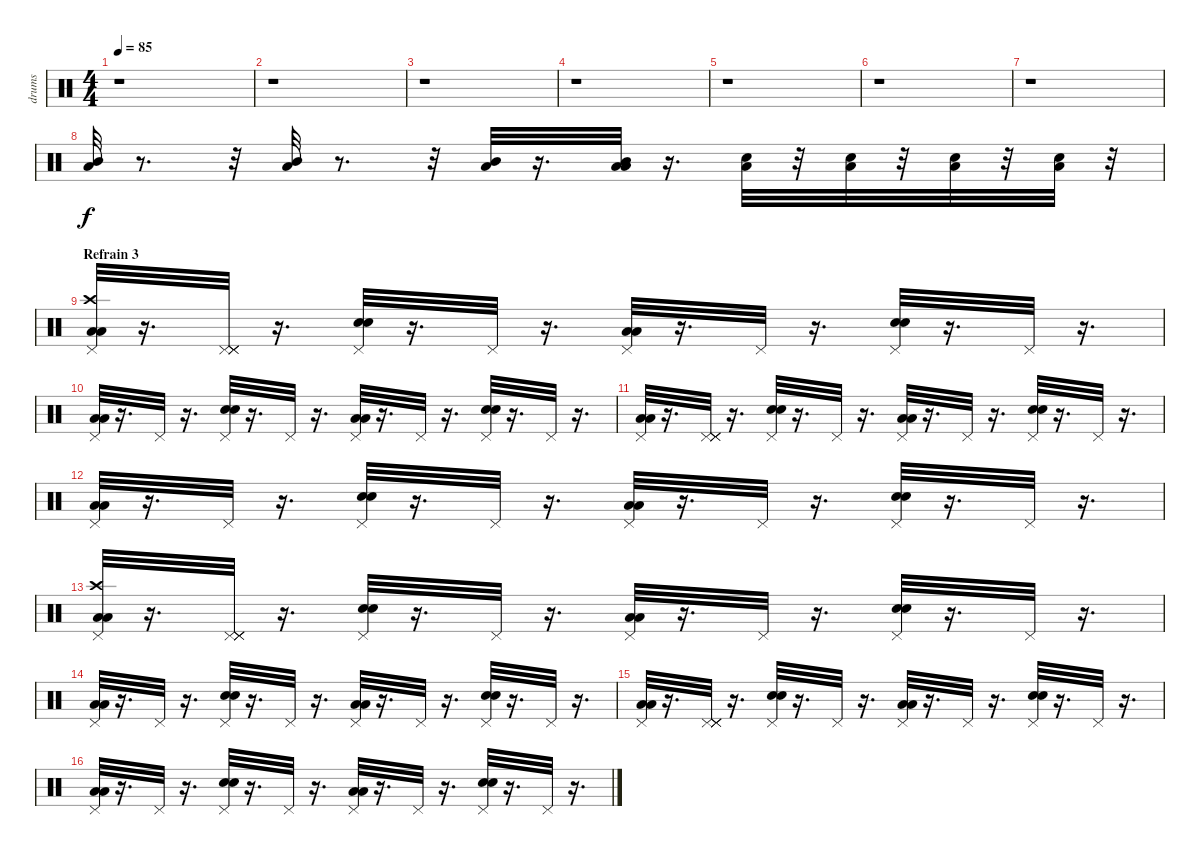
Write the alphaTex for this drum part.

\track ("drums" "drums") {instrument percussion}
\staff {score}
\articulation defaults
\ts (4 4)
\tempo 85
\clef neutral
\ks c
r.1{dy f} |
r.1 |
r.1 |
r.1 |
r.1 |
r.1 |
r.1 |
("Low Floor Tom (hit)" "Mid Tom (hit)").32 r.8{d} r.32 ("Low Floor Tom (hit)" "Mid Tom (hit)").32 r.8{d} r.32 ("Low Floor Tom (hit)" "Mid Tom (hit)").32 r.16{d} ("Low Floor Tom (hit)" "Low Tom (hit)" "Mid Tom (hit)").32 r.16{d} ("Low Floor Tom (hit)" "Snare (hit) 2").32 r.32 ("Low Floor Tom (hit)" "Snare (hit) 2").32 r.32 ("Low Floor Tom (hit)" "Snare (hit) 2").32 r.32 ("Low Floor Tom (hit)" "Snare (hit) 2").32 r.32 |
\section ("" "Refrain 3")
("Crash high (hit)" "Pedal Hi-Hat (hit)" "Low Floor Tom (hit)" "Low Tom (hit)").32 r.16{d} ("Pedal Hi-Hat (hit)" "Pedal Hi-Hat (hit)" "Pedal Hi-Hat (hit)" "Pedal Hi-Hat (hit)").32 r.16{d} ("Pedal Hi-Hat (hit)" "Electric Snare (hit)" "Snare (hit) 2").32 r.16{d} "Pedal Hi-Hat (hit)".32 r.16{d} ("Pedal Hi-Hat (hit)" "Low Tom (hit)" "Low Floor Tom (hit)").32 r.16{d} "Pedal Hi-Hat (hit)".32 r.16{d} ("Pedal Hi-Hat (hit)" "Snare (hit) 2" "Electric Snare (hit)").32 r.16{d} "Pedal Hi-Hat (hit)".32 r.16{d} |
("Low Floor Tom (hit)" "Low Tom (hit)" "Pedal Hi-Hat (hit)").32 r.16{d} "Pedal Hi-Hat (hit)".32 r.16{d} ("Snare (hit) 2" "Electric Snare (hit)" "Pedal Hi-Hat (hit)").32 r.16{d} "Pedal Hi-Hat (hit)".32 r.16{d} ("Low Tom (hit)" "Low Floor Tom (hit)" "Pedal Hi-Hat (hit)").32 r.16{d} "Pedal Hi-Hat (hit)".32 r.16{d} ("Snare (hit) 2" "Electric Snare (hit)" "Pedal Hi-Hat (hit)").32 r.16{d} "Pedal Hi-Hat (hit)".32 r.16{d} |
("Pedal Hi-Hat (hit)" "Low Floor Tom (hit)" "Low Tom (hit)").32 r.16{d} ("Pedal Hi-Hat (hit)" "Pedal Hi-Hat (hit)" "Pedal Hi-Hat (hit)" "Pedal Hi-Hat (hit)").32 r.16{d} ("Pedal Hi-Hat (hit)" "Electric Snare (hit)" "Snare (hit) 2").32 r.16{d} "Pedal Hi-Hat (hit)".32 r.16{d} ("Pedal Hi-Hat (hit)" "Low Tom (hit)" "Low Floor Tom (hit)").32 r.16{d} "Pedal Hi-Hat (hit)".32 r.16{d} ("Pedal Hi-Hat (hit)" "Snare (hit) 2" "Electric Snare (hit)").32 r.16{d} "Pedal Hi-Hat (hit)".32 r.16{d} |
("Low Floor Tom (hit)" "Low Tom (hit)" "Pedal Hi-Hat (hit)").32 r.16{d} "Pedal Hi-Hat (hit)".32 r.16{d} ("Snare (hit) 2" "Electric Snare (hit)" "Pedal Hi-Hat (hit)").32 r.16{d} "Pedal Hi-Hat (hit)".32 r.16{d} ("Low Tom (hit)" "Low Floor Tom (hit)" "Pedal Hi-Hat (hit)").32 r.16{d} "Pedal Hi-Hat (hit)".32 r.16{d} ("Snare (hit) 2" "Electric Snare (hit)" "Pedal Hi-Hat (hit)").32 r.16{d} "Pedal Hi-Hat (hit)".32 r.16{d} |
("Crash high (hit)" "Pedal Hi-Hat (hit)" "Low Floor Tom (hit)" "Low Tom (hit)").32 r.16{d} ("Pedal Hi-Hat (hit)" "Pedal Hi-Hat (hit)" "Pedal Hi-Hat (hit)" "Pedal Hi-Hat (hit)").32 r.16{d} ("Pedal Hi-Hat (hit)" "Electric Snare (hit)" "Snare (hit) 2").32 r.16{d} "Pedal Hi-Hat (hit)".32 r.16{d} ("Pedal Hi-Hat (hit)" "Low Tom (hit)" "Low Floor Tom (hit)").32 r.16{d} "Pedal Hi-Hat (hit)".32 r.16{d} ("Pedal Hi-Hat (hit)" "Snare (hit) 2" "Electric Snare (hit)").32 r.16{d} "Pedal Hi-Hat (hit)".32 r.16{d} |
("Low Floor Tom (hit)" "Low Tom (hit)" "Pedal Hi-Hat (hit)").32 r.16{d} "Pedal Hi-Hat (hit)".32 r.16{d} ("Snare (hit) 2" "Electric Snare (hit)" "Pedal Hi-Hat (hit)").32 r.16{d} "Pedal Hi-Hat (hit)".32 r.16{d} ("Low Tom (hit)" "Low Floor Tom (hit)" "Pedal Hi-Hat (hit)").32 r.16{d} "Pedal Hi-Hat (hit)".32 r.16{d} ("Snare (hit) 2" "Electric Snare (hit)" "Pedal Hi-Hat (hit)").32 r.16{d} "Pedal Hi-Hat (hit)".32 r.16{d} |
("Pedal Hi-Hat (hit)" "Low Floor Tom (hit)" "Low Tom (hit)").32 r.16{d} ("Pedal Hi-Hat (hit)" "Pedal Hi-Hat (hit)" "Pedal Hi-Hat (hit)" "Pedal Hi-Hat (hit)").32 r.16{d} ("Pedal Hi-Hat (hit)" "Electric Snare (hit)" "Snare (hit) 2").32 r.16{d} "Pedal Hi-Hat (hit)".32 r.16{d} ("Pedal Hi-Hat (hit)" "Low Tom (hit)" "Low Floor Tom (hit)").32 r.16{d} "Pedal Hi-Hat (hit)".32 r.16{d} ("Pedal Hi-Hat (hit)" "Snare (hit) 2" "Electric Snare (hit)").32 r.16{d} "Pedal Hi-Hat (hit)".32 r.16{d} |
("Low Floor Tom (hit)" "Low Tom (hit)" "Pedal Hi-Hat (hit)").32 r.16{d} "Pedal Hi-Hat (hit)".32 r.16{d} ("Snare (hit) 2" "Electric Snare (hit)" "Pedal Hi-Hat (hit)").32 r.16{d} "Pedal Hi-Hat (hit)".32 r.16{d} ("Low Tom (hit)" "Low Floor Tom (hit)" "Pedal Hi-Hat (hit)").32 r.16{d} "Pedal Hi-Hat (hit)".32 r.16{d} ("Snare (hit) 2" "Electric Snare (hit)" "Pedal Hi-Hat (hit)").32 r.16{d} "Pedal Hi-Hat (hit)".32 r.16{d}
